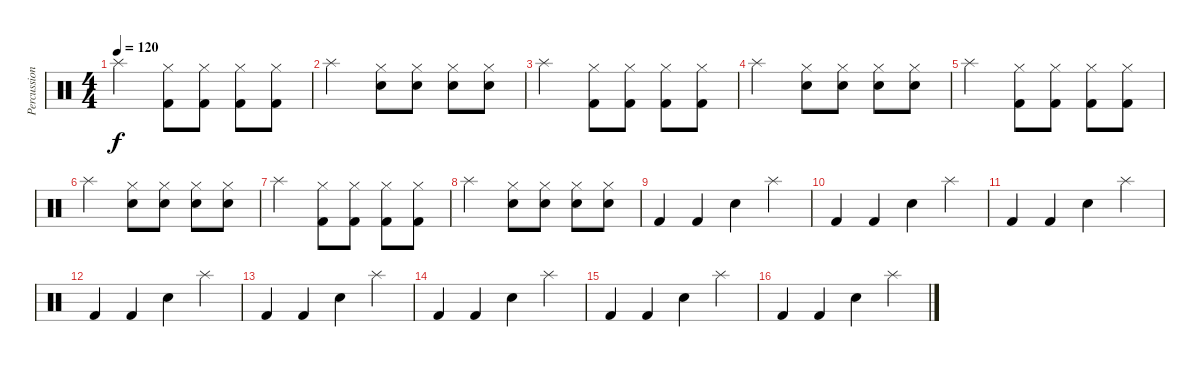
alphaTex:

\track ("Percussion" "Percussion") {instrument percussion}
\staff {score}
\articulation defaults
\ts (4 4)
\tempo 120
\clef neutral
\ks c "Splash (hit)".2{dy f}
("Hi-Hat (closed)" "Kick (hit) 2").8 ("Hi-Hat (closed)" "Kick (hit) 2").8 ("Hi-Hat (closed)" "Kick (hit) 2").8 ("Hi-Hat (closed)" "Kick (hit) 2").8 |
"Splash (hit)".2 ("Hi-Hat (closed)" "Snare (hit) 2").8 ("Hi-Hat (closed)" "Snare (hit) 2").8 ("Hi-Hat (closed)" "Snare (hit) 2").8 ("Hi-Hat (closed)" "Snare (hit) 2").8 |
"Splash (hit)".2 ("Hi-Hat (closed)" "Kick (hit) 2").8 ("Hi-Hat (closed)" "Kick (hit) 2").8 ("Hi-Hat (closed)" "Kick (hit) 2").8 ("Hi-Hat (closed)" "Kick (hit) 2").8 |
"Splash (hit)".2 ("Hi-Hat (closed)" "Snare (hit) 2").8 ("Hi-Hat (closed)" "Snare (hit) 2").8 ("Hi-Hat (closed)" "Snare (hit) 2").8 ("Hi-Hat (closed)" "Snare (hit) 2").8 |
"Splash (hit)".2 ("Hi-Hat (closed)" "Kick (hit) 2").8 ("Hi-Hat (closed)" "Kick (hit) 2").8 ("Hi-Hat (closed)" "Kick (hit) 2").8 ("Hi-Hat (closed)" "Kick (hit) 2").8 |
"Splash (hit)".2 ("Hi-Hat (closed)" "Snare (hit) 2").8 ("Hi-Hat (closed)" "Snare (hit) 2").8 ("Hi-Hat (closed)" "Snare (hit) 2").8 ("Hi-Hat (closed)" "Snare (hit) 2").8 |
"Splash (hit)".2 ("Hi-Hat (closed)" "Kick (hit) 2").8 ("Hi-Hat (closed)" "Kick (hit) 2").8 ("Hi-Hat (closed)" "Kick (hit) 2").8 ("Hi-Hat (closed)" "Kick (hit) 2").8 |
"Splash (hit)".2 ("Hi-Hat (closed)" "Snare (hit) 2").8 ("Hi-Hat (closed)" "Snare (hit) 2").8 ("Hi-Hat (closed)" "Snare (hit) 2").8 ("Hi-Hat (closed)" "Snare (hit) 2").8 |
"Kick (hit) 2".4 "Kick (hit) 2".4 "Snare (hit) 2".4 "Splash (hit)".4 |
"Kick (hit) 2".4 "Kick (hit) 2".4 "Snare (hit) 2".4 "Splash (hit)".4 |
"Kick (hit) 2".4 "Kick (hit) 2".4 "Snare (hit) 2".4 "Splash (hit)".4 |
"Kick (hit) 2".4 "Kick (hit) 2".4 "Snare (hit) 2".4 "Splash (hit)".4 |
"Kick (hit) 2".4 "Kick (hit) 2".4 "Snare (hit) 2".4 "Splash (hit)".4 |
"Kick (hit) 2".4 "Kick (hit) 2".4 "Snare (hit) 2".4 "Splash (hit)".4 |
"Kick (hit) 2".4 "Kick (hit) 2".4 "Snare (hit) 2".4 "Splash (hit)".4 |
"Kick (hit) 2".4 "Kick (hit) 2".4 "Snare (hit) 2".4 "Splash (hit)".4
